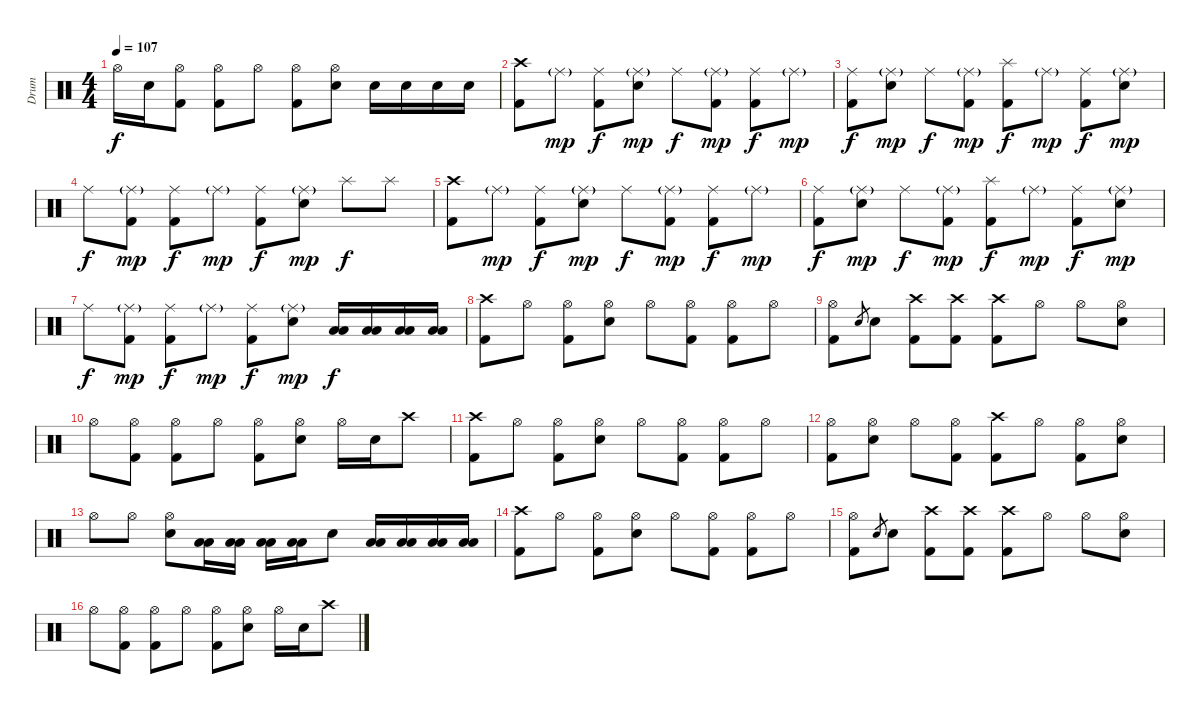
\track ("Drum" "Drum") {instrument percussion}
\staff {score}
\articulation defaults
\ts (4 4)
\tempo 107
\clef neutral
\ks c "Hi-Hat (open)".16{dy f} "Electric Snare (hit)".16
("Hi-Hat (open)" "Kick (hit) 2").8 ("Hi-Hat (open)" "Kick (hit) 2").8 "Hi-Hat (open)".8 ("Hi-Hat (open)" "Kick (hit) 2").8 ("Hi-Hat (open)" "Electric Snare (hit)").8 "Electric Snare (hit)".16 "Electric Snare (hit)".16 "Electric Snare (hit)".16 "Electric Snare (hit)".16 |
("Crash high (hit)" "Kick (hit) 2").8 "Ride (middle)"{g}.8{dy mp} ("Ride (middle)" "Kick (hit) 2").8{dy f} ("Ride (middle)"{g} "Electric Snare (hit)").8{dy mp} "Ride (middle)".8{dy f} ("Ride (middle)"{g} "Kick (hit) 2").8{dy mp} ("Ride (middle)" "Kick (hit) 2").8{dy f} "Ride (middle)"{g}.8{dy mp} |
("Ride (middle)" "Kick (hit) 2").8{dy f} ("Ride (middle)"{g} "Electric Snare (hit)").8{dy mp} "Ride (middle)".8{dy f} ("Ride (middle)"{g} "Kick (hit) 2").8{dy mp} ("Splash (hit)" "Kick (hit) 2").8{dy f} "Ride (middle)"{g}.8{dy mp} ("Ride (middle)" "Kick (hit) 2").8{dy f} ("Ride (middle)"{g} "Electric Snare (hit)").8{dy mp} |
"Ride (middle)".8{dy f} ("Ride (middle)"{g} "Kick (hit) 2").8{dy mp} ("Ride (middle)" "Kick (hit) 2").8{dy f} "Ride (middle)"{g}.8{dy mp} ("Ride (middle)" "Kick (hit) 2").8{dy f} ("Ride (middle)"{g} "Electric Snare (hit)").8{dy mp} "Splash (hit)".8{dy f} "Splash (hit)".8 |
("Crash high (hit)" "Kick (hit) 2").8 "Ride (middle)"{g}.8{dy mp} ("Ride (middle)" "Kick (hit) 2").8{dy f} ("Ride (middle)"{g} "Electric Snare (hit)").8{dy mp} "Ride (middle)".8{dy f} ("Ride (middle)"{g} "Kick (hit) 2").8{dy mp} ("Ride (middle)" "Kick (hit) 2").8{dy f} "Ride (middle)"{g}.8{dy mp} |
("Ride (middle)" "Kick (hit) 2").8{dy f} ("Ride (middle)"{g} "Electric Snare (hit)").8{dy mp} "Ride (middle)".8{dy f} ("Ride (middle)"{g} "Kick (hit) 2").8{dy mp} ("Splash (hit)" "Kick (hit) 2").8{dy f} "Ride (middle)"{g}.8{dy mp} ("Ride (middle)" "Kick (hit) 2").8{dy f} ("Ride (middle)"{g} "Electric Snare (hit)").8{dy mp} |
"Ride (middle)".8{dy f} ("Ride (middle)"{g} "Kick (hit) 2").8{dy mp} ("Ride (middle)" "Kick (hit) 2").8{dy f} "Ride (middle)"{g}.8{dy mp} ("Ride (middle)" "Kick (hit) 2").8{dy f} ("Ride (middle)"{g} "Electric Snare (hit)").8{dy mp} ("Low Tom (hit)" "Low Floor Tom (hit)").16{dy f} ("Low Tom (hit)" "Low Floor Tom (hit)").16 ("Low Tom (hit)" "Low Floor Tom (hit)").16 ("Low Tom (hit)" "Low Floor Tom (hit)").16 |
("Crash high (hit)" "Kick (hit) 2").8 "Hi-Hat (open)".8 ("Hi-Hat (open)" "Kick (hit) 2").8 ("Hi-Hat (open)" "Electric Snare (hit)").8 "Hi-Hat (open)".8 ("Hi-Hat (open)" "Kick (hit) 2").8 ("Hi-Hat (open)" "Kick (hit) 2").8 "Hi-Hat (open)".8 |
("Hi-Hat (open)" "Kick (hit) 2").8 "Electric Snare (hit)".8{gr} "Electric Snare (hit)".8 ("Crash high (hit)" "Kick (hit) 2").8 ("Crash high (hit)" "Kick (hit) 2").8 ("Crash high (hit)" "Kick (hit) 2").8 "Hi-Hat (open)".8 "Hi-Hat (open)".8 ("Hi-Hat (open)" "Electric Snare (hit)").8 |
"Hi-Hat (open)".8 ("Hi-Hat (open)" "Kick (hit) 2").8 ("Hi-Hat (open)" "Kick (hit) 2").8 "Hi-Hat (open)".8 ("Hi-Hat (open)" "Kick (hit) 2").8 ("Hi-Hat (open)" "Electric Snare (hit)").8 "Hi-Hat (open)".16 "Electric Snare (hit)".16 "Crash high (hit)".8 |
("Crash high (hit)" "Kick (hit) 2").8 "Hi-Hat (open)".8 ("Hi-Hat (open)" "Kick (hit) 2").8 ("Hi-Hat (open)" "Electric Snare (hit)").8 "Hi-Hat (open)".8 ("Hi-Hat (open)" "Kick (hit) 2").8 ("Hi-Hat (open)" "Kick (hit) 2").8 "Hi-Hat (open)".8 |
("Hi-Hat (open)" "Kick (hit) 2").8 ("Hi-Hat (open)" "Electric Snare (hit)").8 "Hi-Hat (open)".8 ("Hi-Hat (open)" "Kick (hit) 2").8 ("Crash high (hit)" "Kick (hit) 2").8 "Hi-Hat (open)".8 ("Hi-Hat (open)" "Kick (hit) 2").8 ("Hi-Hat (open)" "Electric Snare (hit)").8 |
"Hi-Hat (open)".8 "Hi-Hat (open)".8 ("Hi-Hat (open)" "Electric Snare (hit)").8 ("Low Tom (hit)" "Low Floor Tom (hit)").16 ("Low Tom (hit)" "Low Floor Tom (hit)").16 ("Low Tom (hit)" "Low Floor Tom (hit)").16 ("Low Tom (hit)" "Low Floor Tom (hit)").16 "Electric Snare (hit)".8 ("Low Tom (hit)" "Low Floor Tom (hit)").16 ("Low Tom (hit)" "Low Floor Tom (hit)").16 ("Low Tom (hit)" "Low Floor Tom (hit)").16 ("Low Tom (hit)" "Low Floor Tom (hit)").16 |
("Crash high (hit)" "Kick (hit) 2").8 "Hi-Hat (open)".8 ("Hi-Hat (open)" "Kick (hit) 2").8 ("Hi-Hat (open)" "Electric Snare (hit)").8 "Hi-Hat (open)".8 ("Hi-Hat (open)" "Kick (hit) 2").8 ("Hi-Hat (open)" "Kick (hit) 2").8 "Hi-Hat (open)".8 |
("Hi-Hat (open)" "Kick (hit) 2").8 "Electric Snare (hit)".8{gr} "Electric Snare (hit)".8 ("Crash high (hit)" "Kick (hit) 2").8 ("Crash high (hit)" "Kick (hit) 2").8 ("Crash high (hit)" "Kick (hit) 2").8 "Hi-Hat (open)".8 "Hi-Hat (open)".8 ("Hi-Hat (open)" "Electric Snare (hit)").8 |
"Hi-Hat (open)".8 ("Hi-Hat (open)" "Kick (hit) 2").8 ("Hi-Hat (open)" "Kick (hit) 2").8 "Hi-Hat (open)".8 ("Hi-Hat (open)" "Kick (hit) 2").8 ("Hi-Hat (open)" "Electric Snare (hit)").8 "Hi-Hat (open)".16 "Electric Snare (hit)".16 "Crash high (hit)".8
